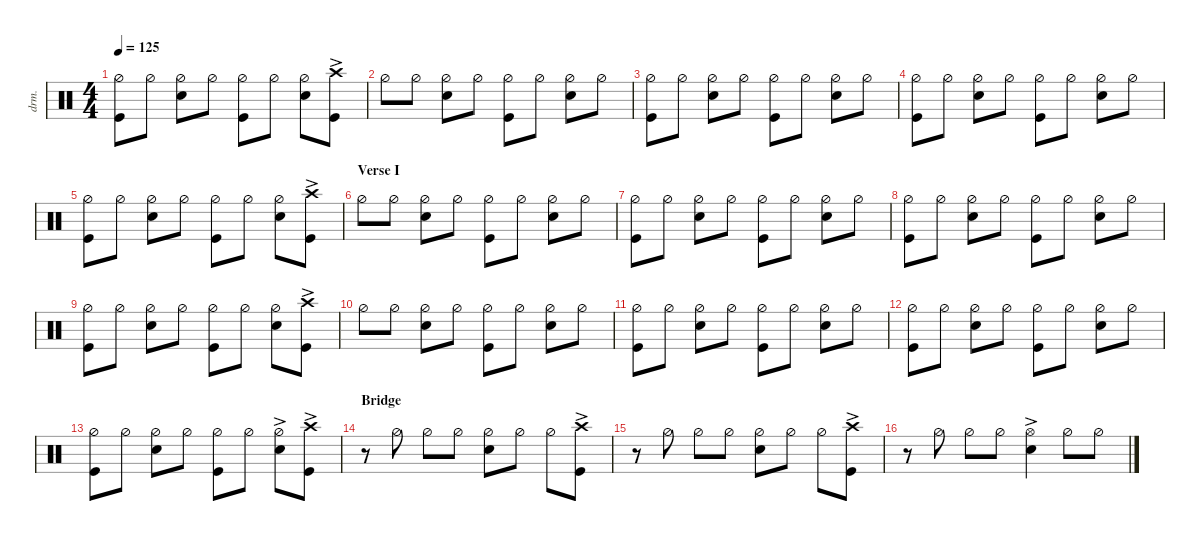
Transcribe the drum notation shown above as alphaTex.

\defaultSystemsLayout 4
\hideDynamics
\bracketExtendMode nobrackets
\track ("Drums" "drm.") {defaultSystemsLayout 4 multiBarRest instrument percussion}
\staff {score}
\articulation defaults
\ts (4 4)
\tempo 125
\clef neutral
\ks c
("Hi-Hat (half)" "Kick (hit)").8{dy f beam Down} "Hi-Hat (half)".8{beam Down} ("Hi-Hat (half)" "Snare (hit) 2").8{beam Down} "Hi-Hat (half)".8{beam Down} ("Hi-Hat (half)" "Kick (hit)").8{beam Down} "Hi-Hat (half)".8{beam Down} ("Hi-Hat (half)" "Snare (hit) 2").8{beam Down} ("Kick (hit)" "Crash high (hit)"{ac}).8{beam Down} |
"Hi-Hat (half)".8{beam Down} "Hi-Hat (half)".8{beam Down} ("Hi-Hat (half)" "Snare (hit) 2").8{beam Down} "Hi-Hat (half)".8{beam Down} ("Hi-Hat (half)" "Kick (hit)").8{beam Down} "Hi-Hat (half)".8{beam Down} ("Hi-Hat (half)" "Snare (hit) 2").8{beam Down} "Hi-Hat (half)".8{beam Down} |
("Hi-Hat (half)" "Kick (hit)").8{beam Down} "Hi-Hat (half)".8{beam Down} ("Hi-Hat (half)" "Snare (hit) 2").8{beam Down} "Hi-Hat (half)".8{beam Down} ("Hi-Hat (half)" "Kick (hit)").8{beam Down} "Hi-Hat (half)".8{beam Down} ("Hi-Hat (half)" "Snare (hit) 2").8{beam Down} "Hi-Hat (half)".8{beam Down} |
("Hi-Hat (half)" "Kick (hit)").8{beam Down} "Hi-Hat (half)".8{beam Down} ("Hi-Hat (half)" "Snare (hit) 2").8{beam Down} "Hi-Hat (half)".8{beam Down} ("Hi-Hat (half)" "Kick (hit)").8{beam Down} "Hi-Hat (half)".8{beam Down} ("Hi-Hat (half)" "Snare (hit) 2").8{beam Down} "Hi-Hat (half)".8{beam Down} |
("Hi-Hat (half)" "Kick (hit)").8{beam Down} "Hi-Hat (half)".8{beam Down} ("Hi-Hat (half)" "Snare (hit) 2").8{beam Down} "Hi-Hat (half)".8{beam Down} ("Hi-Hat (half)" "Kick (hit)").8{beam Down} "Hi-Hat (half)".8{beam Down} ("Hi-Hat (half)" "Snare (hit) 2").8{beam Down} ("Kick (hit)" "Crash high (hit)"{ac}).8{beam Down} |
\section ("" "Verse I")
"Hi-Hat (half)".8{beam Down} "Hi-Hat (half)".8{beam Down} ("Hi-Hat (half)" "Snare (hit) 2").8{beam Down} "Hi-Hat (half)".8{beam Down} ("Hi-Hat (half)" "Kick (hit)").8{beam Down} "Hi-Hat (half)".8{beam Down} ("Hi-Hat (half)" "Snare (hit) 2").8{beam Down} "Hi-Hat (half)".8{beam Down} |
("Hi-Hat (half)" "Kick (hit)").8{beam Down} "Hi-Hat (half)".8{beam Down} ("Hi-Hat (half)" "Snare (hit) 2").8{beam Down} "Hi-Hat (half)".8{beam Down} ("Hi-Hat (half)" "Kick (hit)").8{beam Down} "Hi-Hat (half)".8{beam Down} ("Hi-Hat (half)" "Snare (hit) 2").8{beam Down} "Hi-Hat (half)".8{beam Down} |
("Hi-Hat (half)" "Kick (hit)").8{beam Down} "Hi-Hat (half)".8{beam Down} ("Hi-Hat (half)" "Snare (hit) 2").8{beam Down} "Hi-Hat (half)".8{beam Down} ("Hi-Hat (half)" "Kick (hit)").8{beam Down} "Hi-Hat (half)".8{beam Down} ("Hi-Hat (half)" "Snare (hit) 2").8{beam Down} "Hi-Hat (half)".8{beam Down} |
("Hi-Hat (half)" "Kick (hit)").8{beam Down} "Hi-Hat (half)".8{beam Down} ("Hi-Hat (half)" "Snare (hit) 2").8{beam Down} "Hi-Hat (half)".8{beam Down} ("Hi-Hat (half)" "Kick (hit)").8{beam Down} "Hi-Hat (half)".8{beam Down} ("Hi-Hat (half)" "Snare (hit) 2").8{beam Down} ("Kick (hit)" "Crash high (hit)"{ac}).8{beam Down} |
"Hi-Hat (half)".8{beam Down} "Hi-Hat (half)".8{beam Down} ("Hi-Hat (half)" "Snare (hit) 2").8{beam Down} "Hi-Hat (half)".8{beam Down} ("Hi-Hat (half)" "Kick (hit)").8{beam Down} "Hi-Hat (half)".8{beam Down} ("Hi-Hat (half)" "Snare (hit) 2").8{beam Down} "Hi-Hat (half)".8{beam Down} |
("Hi-Hat (half)" "Kick (hit)").8{beam Down} "Hi-Hat (half)".8{beam Down} ("Hi-Hat (half)" "Snare (hit) 2").8{beam Down} "Hi-Hat (half)".8{beam Down} ("Hi-Hat (half)" "Kick (hit)").8{beam Down} "Hi-Hat (half)".8{beam Down} ("Hi-Hat (half)" "Snare (hit) 2").8{beam Down} "Hi-Hat (half)".8{beam Down} |
("Hi-Hat (half)" "Kick (hit)").8{beam Down} "Hi-Hat (half)".8{beam Down} ("Hi-Hat (half)" "Snare (hit) 2").8{beam Down} "Hi-Hat (half)".8{beam Down} ("Hi-Hat (half)" "Kick (hit)").8{beam Down} "Hi-Hat (half)".8{beam Down} ("Hi-Hat (half)" "Snare (hit) 2").8{beam Down} "Hi-Hat (half)".8{beam Down} |
("Hi-Hat (half)" "Kick (hit)").8{beam Down} "Hi-Hat (half)".8{beam Down} ("Hi-Hat (half)" "Snare (hit) 2").8{beam Down} "Hi-Hat (half)".8{beam Down} ("Hi-Hat (half)" "Kick (hit)").8{beam Down} "Hi-Hat (half)".8{beam Down} ("Hi-Hat (half)"{ac} "Snare (hit) 2").8{beam Down} ("Kick (hit)" "Crash high (hit)"{ac}).8{beam Down} |
\section ("" "Bridge")
r.8{beam Down} "Hi-Hat (half)".8{beam Down} "Hi-Hat (half)".8{beam Down} "Hi-Hat (half)".8{beam Down} ("Hi-Hat (half)" "Snare (hit) 2").8{beam Down} "Hi-Hat (half)".8{beam Down} "Hi-Hat (half)".8{beam Down} ("Crash high (hit)"{ac} "Kick (hit)").8{beam Down} |
r.8{beam Down} "Hi-Hat (half)".8{beam Down} "Hi-Hat (half)".8{beam Down} "Hi-Hat (half)".8{beam Down} ("Hi-Hat (half)" "Snare (hit) 2").8{beam Down} "Hi-Hat (half)".8{beam Down} "Hi-Hat (half)".8{beam Down} ("Crash high (hit)"{ac} "Kick (hit)").8{beam Down} |
r.8{beam Down} "Hi-Hat (half)".8{beam Down} "Hi-Hat (half)".8{beam Down} "Hi-Hat (half)".8{beam Down} ("Hi-Hat (open)"{ac} "Snare (hit) 2").4{beam Down} "Hi-Hat (half)".8{beam Down} "Hi-Hat (half)".8{beam Down}
